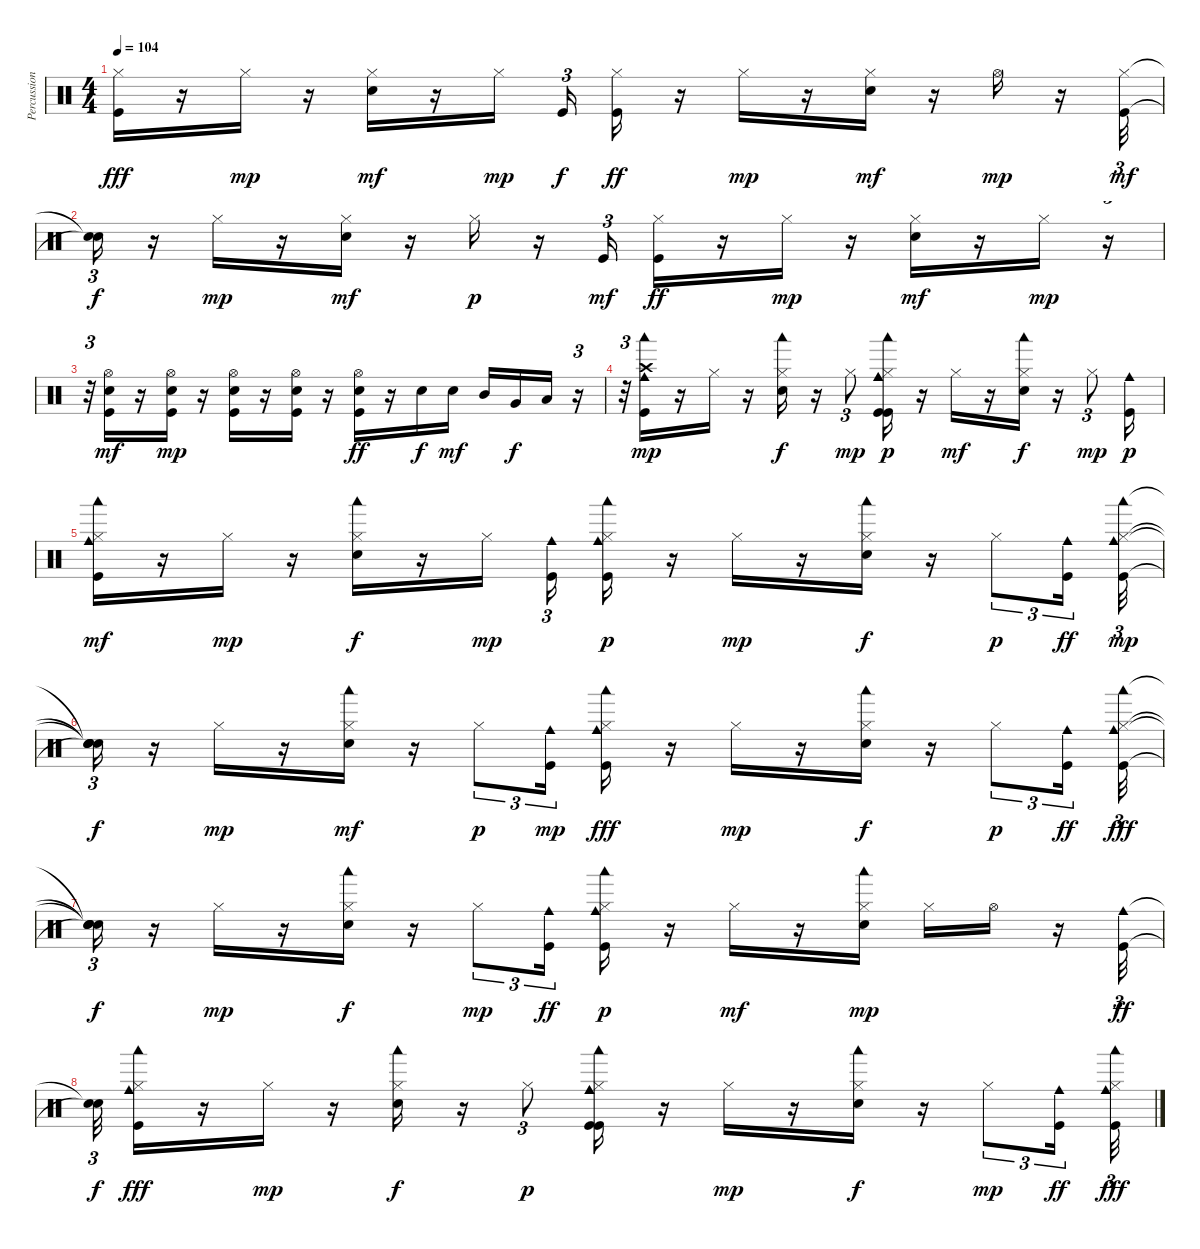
\track ("Percussions (drums + hihats)" "Percussion") {instrument percussion}
\staff {score}
\articulation defaults
\ts (4 4)
\tempo 104
\clef neutral
\ks c
("Hi-Hat (closed)" "Kick (hit)").16{dy fff} r.16 "Hi-Hat (closed)".16{dy mp} r.16 ("Hi-Hat (closed)" "Electric Snare (hit)").16{dy mf} r.16 "Hi-Hat (closed)".16{dy mp} "Kick (hit)".16{tu (3 2) dy f} ("Hi-Hat (closed)" "Kick (hit)").16{dy ff} r.16 "Hi-Hat (closed)".16{dy mp} r.16 ("Electric Snare (hit)" "Hi-Hat (closed)").16{dy mf} r.16 "Hi-Hat (open)".16{dy mp} r.16 ("Kick (hit)" "Hi-Hat (closed)").32{tu (3 2) dy mf} |
("Snare (hit)"{t} "Snare (hit)"{t}).16{tu (3 2) dy f} r.16 "Hi-Hat (closed)".16{dy mp} r.16 ("Electric Snare (hit)" "Hi-Hat (closed)").16{dy mf} r.16 "Hi-Hat (closed)".16{dy p} r.16 "Kick (hit)".16{tu (3 2) dy mf} ("Hi-Hat (closed)" "Kick (hit)").16{dy ff} r.16 "Hi-Hat (closed)".16{dy mp} r.16 ("Electric Snare (hit)" "Hi-Hat (closed)").16{dy mf} r.16 "Hi-Hat (closed)".16{dy mp} r.16{tu (3 2)} |
r.32{tu (3 2)} ("Electric Snare (hit)" "Hi-Hat (open)" "Kick (hit)").16{dy mf} r.16 ("Hi-Hat (open)" "Electric Snare (hit)" "Kick (hit)").16{dy mp} r.16 ("Electric Snare (hit)" "Kick (hit)" "Hi-Hat (open)").16 r.16 ("Kick (hit)" "Electric Snare (hit)" "Hi-Hat (open)").16 r.16 ("Hi-Hat (open)" "Kick (hit)" "Electric Snare (hit)").16{dy ff} r.16 "Electric Snare (hit)".16{dy f} "Electric Snare (hit)".16{dy mf} "Mid Tom (hit)".16 "Very Low Tom (hit)".16{dy f} "Low Tom (hit)".16 r.16{tu (3 2)} |
r.32{tu (3 2)} ("Cowbell medium (hit)" "Kick (hit)" "Woodblock low (hit)" "Crash high (hit)").16{dy mp} r.16 "Hi-Hat (closed)".16 r.16 ("Woodblock low (hit)" "Hi-Hat (closed)" "Electric Snare (hit)").16{dy f} r.16 "Hi-Hat (closed)".8{tu (3 2) dy mp} ("Kick (hit)" "Cowbell medium (hit)" "Kick (hit)" "Hi-Hat (closed)" "Woodblock low (hit)" "Cowbell medium (hit)").16{dy p} r.16 "Hi-Hat (closed)".16{dy mf} r.16 ("Hi-Hat (closed)" "Woodblock low (hit)" "Electric Snare (hit)").16{dy f} r.16 "Hi-Hat (closed)".8{tu (3 2) dy mp} ("Kick (hit)" "Cowbell medium (hit)").16{dy p} |
("Kick (hit)" "Cowbell medium (hit)" "Hi-Hat (closed)" "Woodblock low (hit)").16{dy mf} r.16 "Hi-Hat (closed)".16{dy mp} r.16 ("Woodblock low (hit)" "Electric Snare (hit)" "Hi-Hat (closed)").16{dy f} r.16 "Hi-Hat (closed)".16{dy mp} ("Kick (hit)" "Cowbell medium (hit)").16{tu (3 2)} ("Kick (hit)" "Hi-Hat (closed)" "Cowbell medium (hit)" "Woodblock low (hit)").16{dy p} r.16 "Hi-Hat (closed)".16{dy mp} r.16 ("Electric Snare (hit)" "Hi-Hat (closed)" "Woodblock low (hit)").16{dy f} r.16 "Hi-Hat (closed)".8{tu (3 2) dy p} ("Cowbell medium (hit)" "Kick (hit)").16{tu (3 2) dy ff} ("Hi-Hat (closed)" "Kick (hit)" "Woodblock low (hit)" "Cowbell medium (hit)").32{tu (3 2) dy mp} |
("Snare (hit)"{t} "Snare (hit)"{t} "Snare (hit)"{t} "Snare (hit)"{t}).16{tu (3 2) dy f} r.16 "Hi-Hat (closed)".16{dy mp} r.16 ("Hi-Hat (closed)" "Electric Snare (hit)" "Woodblock low (hit)").16{dy mf} r.16 "Hi-Hat (closed)".8{tu (3 2) dy p} ("Kick (hit)" "Cowbell medium (hit)").16{tu (3 2) dy mp} ("Cowbell medium (hit)" "Woodblock low (hit)" "Hi-Hat (closed)" "Kick (hit)").16{dy fff} r.16 "Hi-Hat (closed)".16{dy mp} r.16 ("Woodblock low (hit)" "Electric Snare (hit)" "Hi-Hat (closed)").16{dy f} r.16 "Hi-Hat (closed)".8{tu (3 2) dy p} ("Cowbell medium (hit)" "Kick (hit)").16{tu (3 2) dy ff} ("Hi-Hat (closed)" "Cowbell medium (hit)" "Kick (hit)" "Woodblock low (hit)").32{tu (3 2) dy fff} |
("Snare (hit)"{t} "Snare (hit)"{t} "Snare (hit)"{t} "Snare (hit)"{t}).16{tu (3 2) dy f} r.16 "Hi-Hat (closed)".16{dy mp} r.16 ("Electric Snare (hit)" "Woodblock low (hit)" "Hi-Hat (closed)").16{dy f} r.16 "Hi-Hat (closed)".8{tu (3 2) dy mp} ("Cowbell medium (hit)" "Kick (hit)").16{tu (3 2) dy ff} ("Hi-Hat (closed)" "Kick (hit)" "Cowbell medium (hit)" "Woodblock low (hit)").16{dy p} r.16 "Hi-Hat (closed)".16{dy mf} r.16 ("Electric Snare (hit)" "Woodblock low (hit)" "Hi-Hat (closed)").16{dy mp} "Hi-Hat (closed)".16 "Hi-Hat (open)".16 r.16 ("Cowbell medium (hit)" "Kick (hit)").32{tu (3 2) dy ff} |
("Snare (hit)"{t} "Snare (hit)"{t}).32{tu (3 2) dy f} ("Hi-Hat (closed)" "Cowbell medium (hit)" "Kick (hit)" "Woodblock low (hit)").16{dy fff} r.16 "Hi-Hat (closed)".16{dy mp} r.16 ("Hi-Hat (closed)" "Woodblock low (hit)" "Electric Snare (hit)").16{dy f} r.16 "Hi-Hat (closed)".8{tu (3 2) dy p} ("Kick (hit)" "Cowbell medium (hit)" "Hi-Hat (closed)" "Kick (hit)" "Cowbell medium (hit)" "Woodblock low (hit)").16 r.16 "Hi-Hat (closed)".16{dy mp} r.16 ("Woodblock low (hit)" "Electric Snare (hit)" "Hi-Hat (closed)").16{dy f} r.16 "Hi-Hat (closed)".8{tu (3 2) dy mp} ("Cowbell medium (hit)" "Kick (hit)").16{tu (3 2) dy ff} ("Cowbell medium (hit)" "Hi-Hat (closed)" "Woodblock low (hit)" "Kick (hit)").32{tu (3 2) dy fff}
